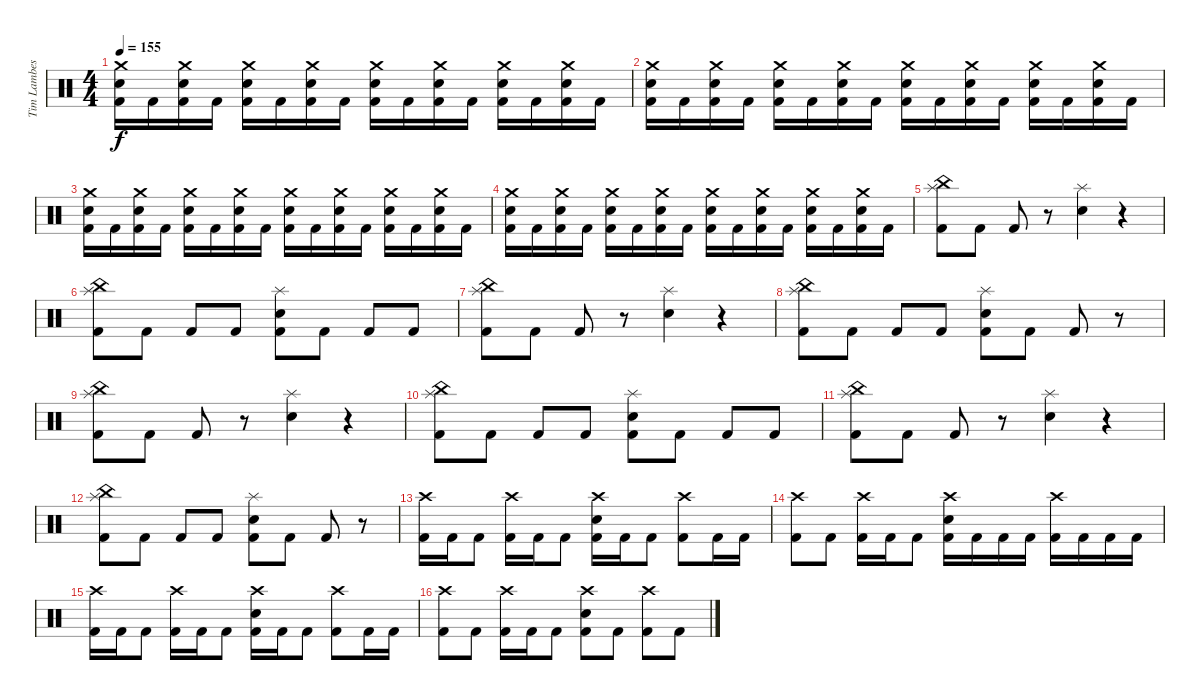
\track ("Tim Lambesis" "Tim Lambes") {instrument percussion}
\staff {score}
\articulation defaults
\ts (4 4)
\tempo 155
\clef neutral
\ks c
("Crash medium (hit)" "Electric Snare (hit)" "Kick (hit) 2").16{dy f} "Kick (hit) 2".16 ("Crash medium (hit)" "Electric Snare (hit)" "Kick (hit) 2").16 "Kick (hit) 2".16 ("Crash medium (hit)" "Electric Snare (hit)" "Kick (hit) 2").16 "Kick (hit) 2".16 ("Crash medium (hit)" "Electric Snare (hit)" "Kick (hit) 2").16 "Kick (hit) 2".16 ("Crash medium (hit)" "Electric Snare (hit)" "Kick (hit) 2").16 "Kick (hit) 2".16 ("Crash medium (hit)" "Electric Snare (hit)" "Kick (hit) 2").16 "Kick (hit) 2".16 ("Crash medium (hit)" "Electric Snare (hit)" "Kick (hit) 2").16 "Kick (hit) 2".16 ("Crash medium (hit)" "Electric Snare (hit)" "Kick (hit) 2").16 "Kick (hit) 2".16 |
("Crash medium (hit)" "Electric Snare (hit)" "Kick (hit) 2").16 "Kick (hit) 2".16 ("Crash medium (hit)" "Electric Snare (hit)" "Kick (hit) 2").16 "Kick (hit) 2".16 ("Crash medium (hit)" "Electric Snare (hit)" "Kick (hit) 2").16 "Kick (hit) 2".16 ("Crash medium (hit)" "Electric Snare (hit)" "Kick (hit) 2").16 "Kick (hit) 2".16 ("Crash medium (hit)" "Electric Snare (hit)" "Kick (hit) 2").16 "Kick (hit) 2".16 ("Crash medium (hit)" "Electric Snare (hit)" "Kick (hit) 2").16 "Kick (hit) 2".16 ("Crash medium (hit)" "Electric Snare (hit)" "Kick (hit) 2").16 "Kick (hit) 2".16 ("Crash medium (hit)" "Electric Snare (hit)" "Kick (hit) 2").16 "Kick (hit) 2".16 |
("Crash medium (hit)" "Electric Snare (hit)" "Kick (hit) 2").16 "Kick (hit) 2".16 ("Crash medium (hit)" "Electric Snare (hit)" "Kick (hit) 2").16 "Kick (hit) 2".16 ("Crash medium (hit)" "Electric Snare (hit)" "Kick (hit) 2").16 "Kick (hit) 2".16 ("Crash medium (hit)" "Electric Snare (hit)" "Kick (hit) 2").16 "Kick (hit) 2".16 ("Crash medium (hit)" "Electric Snare (hit)" "Kick (hit) 2").16 "Kick (hit) 2".16 ("Crash medium (hit)" "Electric Snare (hit)" "Kick (hit) 2").16 "Kick (hit) 2".16 ("Crash medium (hit)" "Electric Snare (hit)" "Kick (hit) 2").16 "Kick (hit) 2".16 ("Crash medium (hit)" "Electric Snare (hit)" "Kick (hit) 2").16 "Kick (hit) 2".16 |
("Crash medium (hit)" "Electric Snare (hit)" "Kick (hit) 2").16 "Kick (hit) 2".16 ("Crash medium (hit)" "Electric Snare (hit)" "Kick (hit) 2").16 "Kick (hit) 2".16 ("Crash medium (hit)" "Electric Snare (hit)" "Kick (hit) 2").16 "Kick (hit) 2".16 ("Crash medium (hit)" "Electric Snare (hit)" "Kick (hit) 2").16 "Kick (hit) 2".16 ("Crash medium (hit)" "Electric Snare (hit)" "Kick (hit) 2").16 "Kick (hit) 2".16 ("Crash medium (hit)" "Electric Snare (hit)" "Kick (hit) 2").16 "Kick (hit) 2".16 ("Crash medium (hit)" "Electric Snare (hit)" "Kick (hit) 2").16 "Kick (hit) 2".16 ("Crash medium (hit)" "Electric Snare (hit)" "Kick (hit) 2").16 "Kick (hit) 2".16 |
("China (hit)" "Splash (hit)" "Kick (hit) 2").8 "Kick (hit) 2".8 "Kick (hit) 2".8 r.8 ("Splash (hit)" "Electric Snare (hit)").4 r.4 |
("China (hit)" "Splash (hit)" "Kick (hit) 2").8 "Kick (hit) 2".8 "Kick (hit) 2".8 "Kick (hit) 2".8 ("Splash (hit)" "Electric Snare (hit)" "Kick (hit) 2").8 "Kick (hit) 2".8 "Kick (hit) 2".8 "Kick (hit) 2".8 |
("China (hit)" "Splash (hit)" "Kick (hit) 2").8 "Kick (hit) 2".8 "Kick (hit) 2".8 r.8 ("Splash (hit)" "Electric Snare (hit)").4 r.4 |
("China (hit)" "Splash (hit)" "Kick (hit) 2").8 "Kick (hit) 2".8 "Kick (hit) 2".8 "Kick (hit) 2".8 ("Splash (hit)" "Electric Snare (hit)" "Kick (hit) 2").8 "Kick (hit) 2".8 "Kick (hit) 2".8 r.8 |
("China (hit)" "Splash (hit)" "Kick (hit) 2").8 "Kick (hit) 2".8 "Kick (hit) 2".8 r.8 ("Splash (hit)" "Electric Snare (hit)").4 r.4 |
("China (hit)" "Splash (hit)" "Kick (hit) 2").8 "Kick (hit) 2".8 "Kick (hit) 2".8 "Kick (hit) 2".8 ("Splash (hit)" "Electric Snare (hit)" "Kick (hit) 2").8 "Kick (hit) 2".8 "Kick (hit) 2".8 "Kick (hit) 2".8 |
("China (hit)" "Splash (hit)" "Kick (hit) 2").8 "Kick (hit) 2".8 "Kick (hit) 2".8 r.8 ("Splash (hit)" "Electric Snare (hit)").4 r.4 |
("China (hit)" "Splash (hit)" "Kick (hit) 2").8 "Kick (hit) 2".8 "Kick (hit) 2".8 "Kick (hit) 2".8 ("Splash (hit)" "Electric Snare (hit)" "Kick (hit) 2").8 "Kick (hit) 2".8 "Kick (hit) 2".8 r.8 |
("Crash high (hit)" "Kick (hit) 2").16 "Kick (hit) 2".16 "Kick (hit) 2".8 ("Crash high (hit)" "Kick (hit) 2").16 "Kick (hit) 2".16 "Kick (hit) 2".8 ("Crash high (hit)" "Electric Snare (hit)" "Kick (hit) 2").16 "Kick (hit) 2".16 "Kick (hit) 2".8 ("Crash high (hit)" "Kick (hit) 2").8 "Kick (hit) 2".16 "Kick (hit) 2".16 |
("Crash high (hit)" "Kick (hit) 2").8 "Kick (hit) 2".8 ("Crash high (hit)" "Kick (hit) 2").16 "Kick (hit) 2".16 "Kick (hit) 2".8 ("Crash high (hit)" "Electric Snare (hit)" "Kick (hit) 2").16 "Kick (hit) 2".16 "Kick (hit) 2".16 "Kick (hit) 2".16 ("Crash high (hit)" "Kick (hit) 2").16 "Kick (hit) 2".16 "Kick (hit) 2".16 "Kick (hit) 2".16 |
("Crash high (hit)" "Kick (hit) 2").16 "Kick (hit) 2".16 "Kick (hit) 2".8 ("Crash high (hit)" "Kick (hit) 2").16 "Kick (hit) 2".16 "Kick (hit) 2".8 ("Crash high (hit)" "Electric Snare (hit)" "Kick (hit) 2").16 "Kick (hit) 2".16 "Kick (hit) 2".8 ("Crash high (hit)" "Kick (hit) 2").8 "Kick (hit) 2".16 "Kick (hit) 2".16 |
("Crash high (hit)" "Kick (hit) 2").8 "Kick (hit) 2".8 ("Crash high (hit)" "Kick (hit) 2").16 "Kick (hit) 2".16 "Kick (hit) 2".8 ("Crash high (hit)" "Electric Snare (hit)" "Kick (hit) 2").8 "Kick (hit) 2".8 ("Crash high (hit)" "Kick (hit) 2").8 "Kick (hit) 2".8
